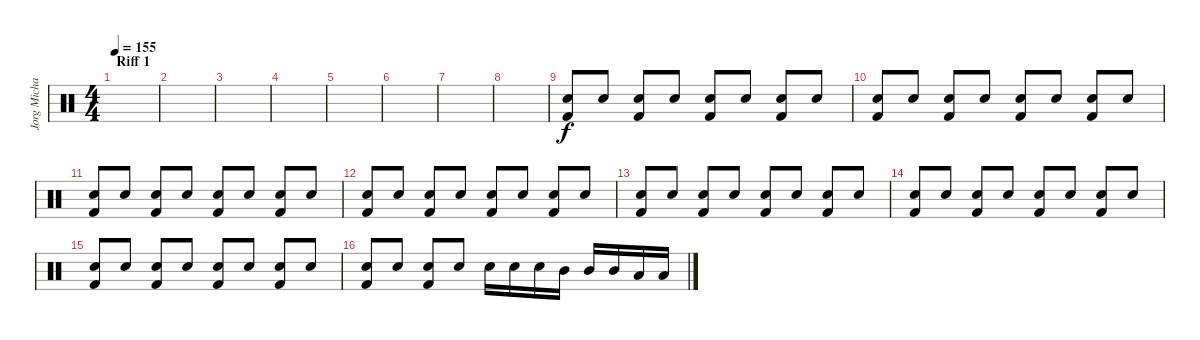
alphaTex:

\track ("Jorg Michael - Batteria" "Jorg Micha") {instrument percussion}
\staff {score}
\articulation defaults
\ts (4 4)
\section ("" "Riff 1")
\tempo 155
\clef neutral
\ks c
|
|
|
|
|
|
|
|
("Kick (hit) 2" "Snare (hit) 2").8{volume 6} "Snare (hit) 2".8 ("Kick (hit) 2" "Snare (hit) 2").8 "Snare (hit) 2".8 ("Kick (hit) 2" "Snare (hit) 2").8 "Snare (hit) 2".8 ("Kick (hit) 2" "Snare (hit) 2").8 "Snare (hit) 2".8 |
("Kick (hit) 2" "Snare (hit) 2").8{volume 7} "Snare (hit) 2".8 ("Kick (hit) 2" "Snare (hit) 2").8 "Snare (hit) 2".8 ("Kick (hit) 2" "Snare (hit) 2").8 "Snare (hit) 2".8 ("Kick (hit) 2" "Snare (hit) 2").8 "Snare (hit) 2".8 |
("Kick (hit) 2" "Snare (hit) 2").8{volume 8} "Snare (hit) 2".8 ("Kick (hit) 2" "Snare (hit) 2").8 "Snare (hit) 2".8 ("Kick (hit) 2" "Snare (hit) 2").8 "Snare (hit) 2".8 ("Kick (hit) 2" "Snare (hit) 2").8 "Snare (hit) 2".8 |
("Kick (hit) 2" "Snare (hit) 2").8{volume 9} "Snare (hit) 2".8 ("Kick (hit) 2" "Snare (hit) 2").8 "Snare (hit) 2".8 ("Kick (hit) 2" "Snare (hit) 2").8 "Snare (hit) 2".8 ("Kick (hit) 2" "Snare (hit) 2").8 "Snare (hit) 2".8 |
("Kick (hit) 2" "Snare (hit) 2").8{volume 10} "Snare (hit) 2".8 ("Kick (hit) 2" "Snare (hit) 2").8 "Snare (hit) 2".8 ("Kick (hit) 2" "Snare (hit) 2").8 "Snare (hit) 2".8 ("Kick (hit) 2" "Snare (hit) 2").8 "Snare (hit) 2".8 |
("Kick (hit) 2" "Snare (hit) 2").8{volume 12} "Snare (hit) 2".8 ("Kick (hit) 2" "Snare (hit) 2").8 "Snare (hit) 2".8 ("Kick (hit) 2" "Snare (hit) 2").8 "Snare (hit) 2".8 ("Kick (hit) 2" "Snare (hit) 2").8 "Snare (hit) 2".8 |
("Kick (hit) 2" "Snare (hit) 2").8{volume 14} "Snare (hit) 2".8 ("Kick (hit) 2" "Snare (hit) 2").8 "Snare (hit) 2".8 ("Kick (hit) 2" "Snare (hit) 2").8 "Snare (hit) 2".8 ("Kick (hit) 2" "Snare (hit) 2").8 "Snare (hit) 2".8 |
("Kick (hit) 2" "Snare (hit) 2").8{volume 16} "Snare (hit) 2".8 ("Kick (hit) 2" "Snare (hit) 2").8 "Snare (hit) 2".8 "Electric Snare (hit)".16 "Electric Snare (hit)".16 "Electric Snare (hit)".16 "Mid Tom (hit)".16 "Mid Tom (hit)".16 "Mid Tom (hit)".16 "Low Tom (hit)".16 "Low Tom (hit)".16
